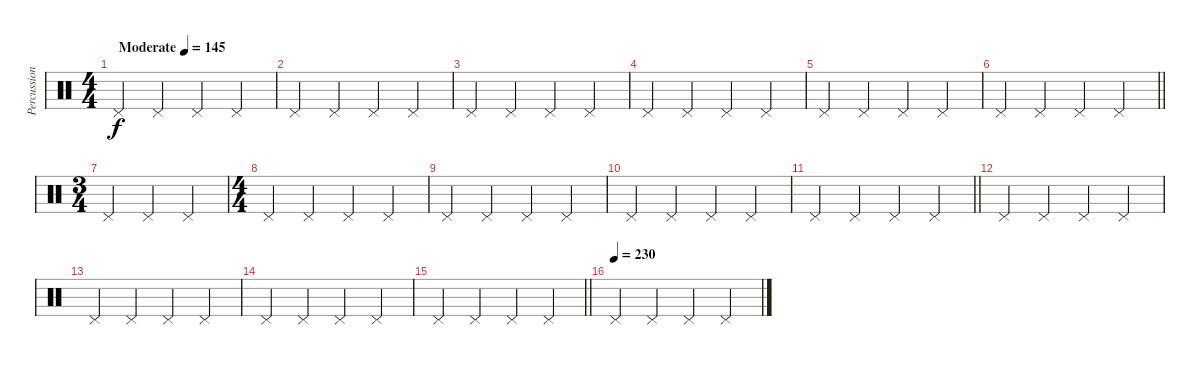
\track ("Percussion" "Percussion") {instrument percussion}
\staff {score}
\articulation defaults
\ts (4 4)
\section ("" "")
\tempo (145 "Moderate")
\clef neutral
\ks c "Pedal Hi-Hat (hit)".4{dy f} "Pedal Hi-Hat (hit)".4 "Pedal Hi-Hat (hit)".4 "Pedal Hi-Hat (hit)".4
|
"Pedal Hi-Hat (hit)".4 "Pedal Hi-Hat (hit)".4 "Pedal Hi-Hat (hit)".4 "Pedal Hi-Hat (hit)".4 |
"Pedal Hi-Hat (hit)".4 "Pedal Hi-Hat (hit)".4 "Pedal Hi-Hat (hit)".4 "Pedal Hi-Hat (hit)".4 |
"Pedal Hi-Hat (hit)".4 "Pedal Hi-Hat (hit)".4 "Pedal Hi-Hat (hit)".4 "Pedal Hi-Hat (hit)".4 |
"Pedal Hi-Hat (hit)".4 "Pedal Hi-Hat (hit)".4 "Pedal Hi-Hat (hit)".4 "Pedal Hi-Hat (hit)".4 |
\barLineRight lightlight "Pedal Hi-Hat (hit)".4 "Pedal Hi-Hat (hit)".4 "Pedal Hi-Hat (hit)".4 "Pedal Hi-Hat (hit)".4
|
\ts (3 4)
\section ("" "")
"Pedal Hi-Hat (hit)".4 "Pedal Hi-Hat (hit)".4 "Pedal Hi-Hat (hit)".4 |
\ts (4 4)
"Pedal Hi-Hat (hit)".4 "Pedal Hi-Hat (hit)".4 "Pedal Hi-Hat (hit)".4 "Pedal Hi-Hat (hit)".4 |
"Pedal Hi-Hat (hit)".4 "Pedal Hi-Hat (hit)".4 "Pedal Hi-Hat (hit)".4 "Pedal Hi-Hat (hit)".4 |
"Pedal Hi-Hat (hit)".4 "Pedal Hi-Hat (hit)".4 "Pedal Hi-Hat (hit)".4 "Pedal Hi-Hat (hit)".4 |
\barLineRight lightlight "Pedal Hi-Hat (hit)".4 "Pedal Hi-Hat (hit)".4 "Pedal Hi-Hat (hit)".4 "Pedal Hi-Hat (hit)".4
|
\section ("" "")
"Pedal Hi-Hat (hit)".4 "Pedal Hi-Hat (hit)".4 "Pedal Hi-Hat (hit)".4 "Pedal Hi-Hat (hit)".4 |
"Pedal Hi-Hat (hit)".4 "Pedal Hi-Hat (hit)".4 "Pedal Hi-Hat (hit)".4 "Pedal Hi-Hat (hit)".4 |
"Pedal Hi-Hat (hit)".4 "Pedal Hi-Hat (hit)".4 "Pedal Hi-Hat (hit)".4 "Pedal Hi-Hat (hit)".4 |
\barLineRight lightlight "Pedal Hi-Hat (hit)".4 "Pedal Hi-Hat (hit)".4 "Pedal Hi-Hat (hit)".4 "Pedal Hi-Hat (hit)".4
|
\section ("" "")
\tempo (230)
"Pedal Hi-Hat (hit)".4 "Pedal Hi-Hat (hit)".4 "Pedal Hi-Hat (hit)".4 "Pedal Hi-Hat (hit)".4
